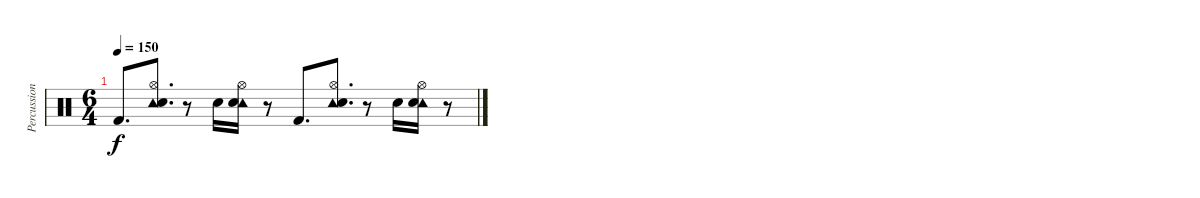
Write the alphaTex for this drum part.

\track ("Percussion" "Percussion") {solo instrument percussion}
\staff {score}
\articulation defaults
\ts (6 4)
\tempo 150
\clef neutral
\ks c "Kick (hit) 2".8{d dy f}
("Tambourine (hit)" "Hi-Hat (open)" "Electric Snare (hit)").8{d} r.8 "Electric Snare (hit)".16 ("Tambourine (hit)" "Hi-Hat (open)" "Electric Snare (hit)").16 r.8 "Kick (hit) 2".8{d} ("Tambourine (hit)" "Hi-Hat (open)" "Electric Snare (hit)").8{d} r.8 "Electric Snare (hit)".16 ("Tambourine (hit)" "Hi-Hat (open)" "Electric Snare (hit)").16 r.8
